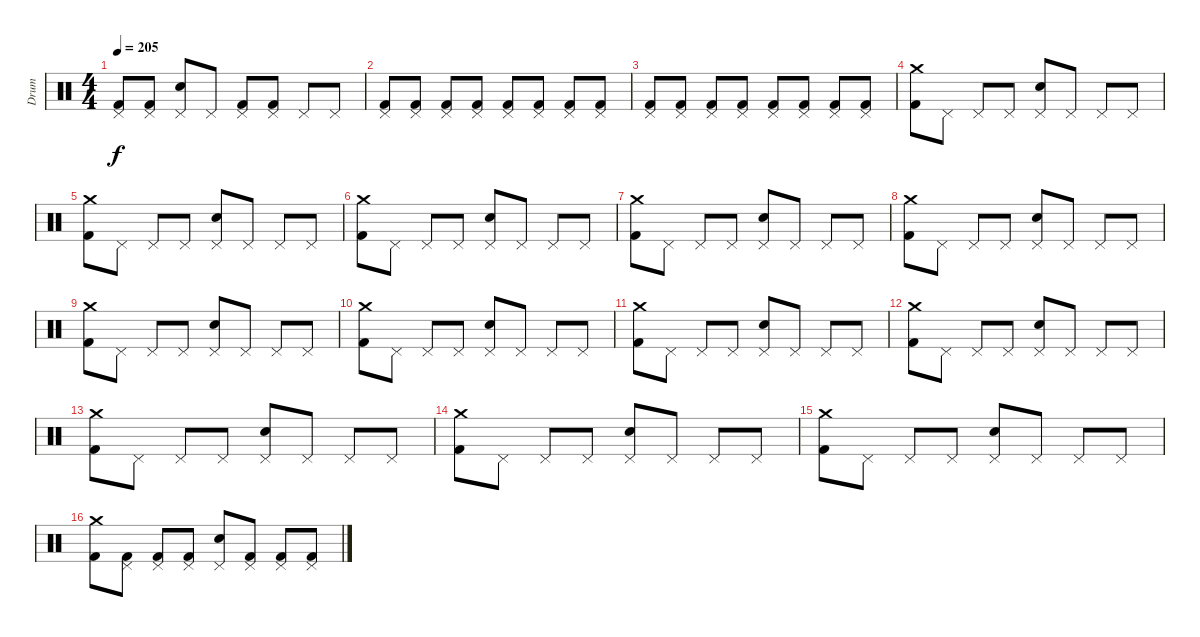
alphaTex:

\track ("Drum" "Drum") {instrument percussion}
\staff {score}
\articulation defaults
\ts (4 4)
\tempo 205
\clef neutral
\ks c
("Pedal Hi-Hat (hit)" "Kick (hit) 2").8{dy f} ("Pedal Hi-Hat (hit)" "Kick (hit) 2").8 ("Pedal Hi-Hat (hit)" "Snare (hit) 2").8 "Pedal Hi-Hat (hit)".8 ("Pedal Hi-Hat (hit)" "Kick (hit) 2").8 ("Pedal Hi-Hat (hit)" "Kick (hit) 2").8 "Pedal Hi-Hat (hit)".8 "Pedal Hi-Hat (hit)".8 |
("Pedal Hi-Hat (hit)" "Kick (hit) 2").8 ("Pedal Hi-Hat (hit)" "Kick (hit) 2").8 ("Pedal Hi-Hat (hit)" "Kick (hit) 2").8 ("Pedal Hi-Hat (hit)" "Kick (hit) 2").8 ("Pedal Hi-Hat (hit)" "Kick (hit) 2").8 ("Pedal Hi-Hat (hit)" "Kick (hit) 2").8 ("Pedal Hi-Hat (hit)" "Kick (hit) 2").8 ("Pedal Hi-Hat (hit)" "Kick (hit) 2").8 |
("Pedal Hi-Hat (hit)" "Kick (hit) 2").8 ("Pedal Hi-Hat (hit)" "Kick (hit) 2").8 ("Pedal Hi-Hat (hit)" "Kick (hit) 2").8 ("Pedal Hi-Hat (hit)" "Kick (hit) 2").8 ("Pedal Hi-Hat (hit)" "Kick (hit) 2").8 ("Pedal Hi-Hat (hit)" "Kick (hit) 2").8 ("Pedal Hi-Hat (hit)" "Kick (hit) 2").8 ("Pedal Hi-Hat (hit)" "Kick (hit) 2").8 |
("Crash medium (hit)" "Kick (hit) 2").8 "Pedal Hi-Hat (hit)".8 "Pedal Hi-Hat (hit)".8 "Pedal Hi-Hat (hit)".8 ("Pedal Hi-Hat (hit)" "Snare (hit) 2").8 "Pedal Hi-Hat (hit)".8 "Pedal Hi-Hat (hit)".8 "Pedal Hi-Hat (hit)".8 |
("Crash medium (hit)" "Kick (hit) 2").8 "Pedal Hi-Hat (hit)".8 "Pedal Hi-Hat (hit)".8 "Pedal Hi-Hat (hit)".8 ("Pedal Hi-Hat (hit)" "Snare (hit) 2").8 "Pedal Hi-Hat (hit)".8 "Pedal Hi-Hat (hit)".8 "Pedal Hi-Hat (hit)".8 |
("Crash medium (hit)" "Kick (hit) 2").8 "Pedal Hi-Hat (hit)".8 "Pedal Hi-Hat (hit)".8 "Pedal Hi-Hat (hit)".8 ("Pedal Hi-Hat (hit)" "Snare (hit) 2").8 "Pedal Hi-Hat (hit)".8 "Pedal Hi-Hat (hit)".8 "Pedal Hi-Hat (hit)".8 |
("Crash medium (hit)" "Kick (hit) 2").8 "Pedal Hi-Hat (hit)".8 "Pedal Hi-Hat (hit)".8 "Pedal Hi-Hat (hit)".8 ("Pedal Hi-Hat (hit)" "Snare (hit) 2").8 "Pedal Hi-Hat (hit)".8 "Pedal Hi-Hat (hit)".8 "Pedal Hi-Hat (hit)".8 |
("Crash medium (hit)" "Kick (hit) 2").8 "Pedal Hi-Hat (hit)".8 "Pedal Hi-Hat (hit)".8 "Pedal Hi-Hat (hit)".8 ("Pedal Hi-Hat (hit)" "Snare (hit) 2").8 "Pedal Hi-Hat (hit)".8 "Pedal Hi-Hat (hit)".8 "Pedal Hi-Hat (hit)".8 |
("Crash medium (hit)" "Kick (hit) 2").8 "Pedal Hi-Hat (hit)".8 "Pedal Hi-Hat (hit)".8 "Pedal Hi-Hat (hit)".8 ("Pedal Hi-Hat (hit)" "Snare (hit) 2").8 "Pedal Hi-Hat (hit)".8 "Pedal Hi-Hat (hit)".8 "Pedal Hi-Hat (hit)".8 |
("Crash medium (hit)" "Kick (hit) 2").8 "Pedal Hi-Hat (hit)".8 "Pedal Hi-Hat (hit)".8 "Pedal Hi-Hat (hit)".8 ("Pedal Hi-Hat (hit)" "Snare (hit) 2").8 "Pedal Hi-Hat (hit)".8 "Pedal Hi-Hat (hit)".8 "Pedal Hi-Hat (hit)".8 |
("Crash medium (hit)" "Kick (hit) 2").8 "Pedal Hi-Hat (hit)".8 "Pedal Hi-Hat (hit)".8 "Pedal Hi-Hat (hit)".8 ("Pedal Hi-Hat (hit)" "Snare (hit) 2").8 "Pedal Hi-Hat (hit)".8 "Pedal Hi-Hat (hit)".8 "Pedal Hi-Hat (hit)".8 |
("Crash medium (hit)" "Kick (hit) 2").8 "Pedal Hi-Hat (hit)".8 "Pedal Hi-Hat (hit)".8 "Pedal Hi-Hat (hit)".8 ("Pedal Hi-Hat (hit)" "Snare (hit) 2").8 "Pedal Hi-Hat (hit)".8 "Pedal Hi-Hat (hit)".8 "Pedal Hi-Hat (hit)".8 |
("Crash medium (hit)" "Kick (hit) 2").8 "Pedal Hi-Hat (hit)".8 "Pedal Hi-Hat (hit)".8 "Pedal Hi-Hat (hit)".8 ("Pedal Hi-Hat (hit)" "Snare (hit) 2").8 "Pedal Hi-Hat (hit)".8 "Pedal Hi-Hat (hit)".8 "Pedal Hi-Hat (hit)".8 |
("Crash medium (hit)" "Kick (hit) 2").8 "Pedal Hi-Hat (hit)".8 "Pedal Hi-Hat (hit)".8 "Pedal Hi-Hat (hit)".8 ("Pedal Hi-Hat (hit)" "Snare (hit) 2").8 "Pedal Hi-Hat (hit)".8 "Pedal Hi-Hat (hit)".8 "Pedal Hi-Hat (hit)".8 |
("Crash medium (hit)" "Kick (hit) 2").8 "Pedal Hi-Hat (hit)".8 "Pedal Hi-Hat (hit)".8 "Pedal Hi-Hat (hit)".8 ("Pedal Hi-Hat (hit)" "Snare (hit) 2").8 "Pedal Hi-Hat (hit)".8 "Pedal Hi-Hat (hit)".8 "Pedal Hi-Hat (hit)".8 |
("Crash medium (hit)" "Kick (hit) 2").8 ("Pedal Hi-Hat (hit)" "Kick (hit) 2").8 ("Pedal Hi-Hat (hit)" "Kick (hit) 2").8 ("Pedal Hi-Hat (hit)" "Kick (hit) 2").8 ("Pedal Hi-Hat (hit)" "Snare (hit) 2").8 ("Pedal Hi-Hat (hit)" "Kick (hit) 2").8 ("Pedal Hi-Hat (hit)" "Kick (hit) 2").8 ("Pedal Hi-Hat (hit)" "Kick (hit) 2").8
